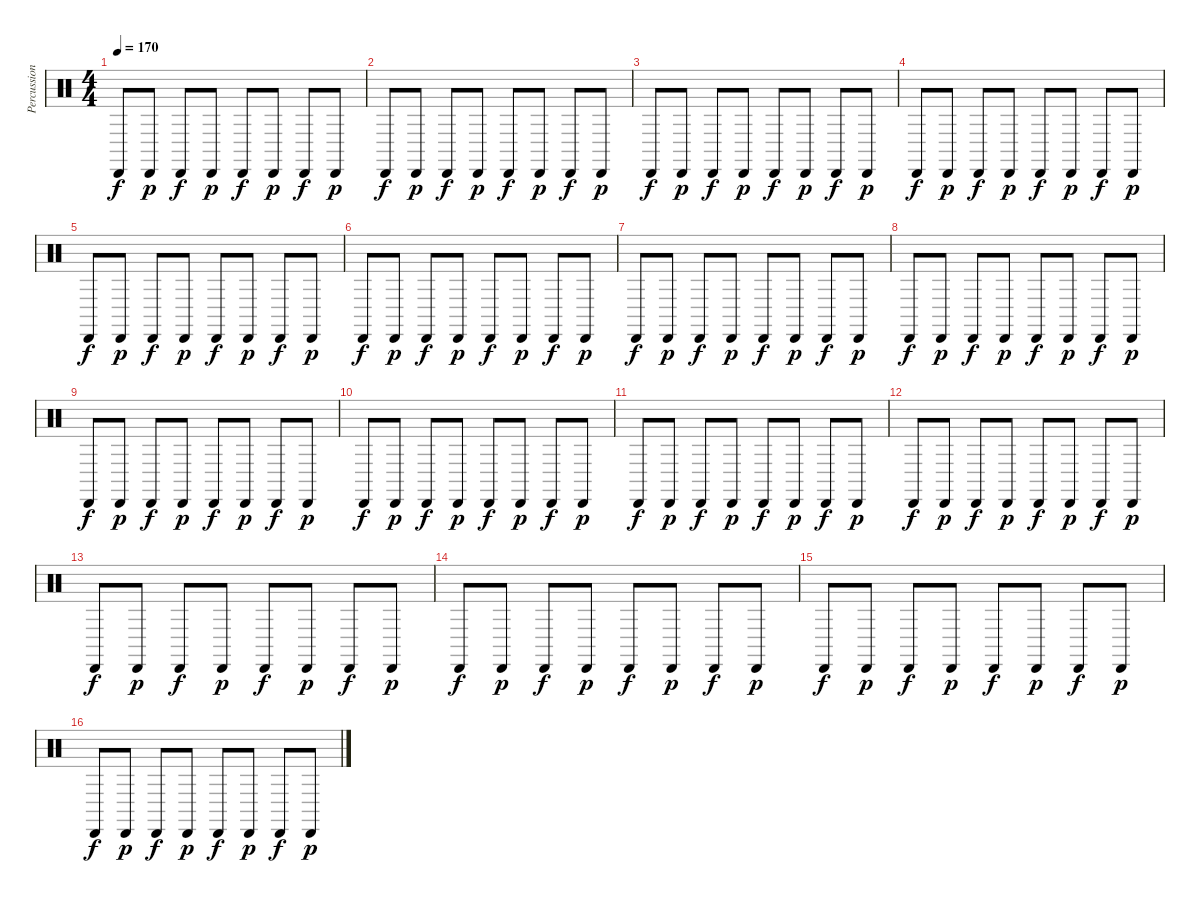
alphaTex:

\track ("Percussion" "Percussion") {instrument percussion}
\staff {score}
\articulation defaults
\ts (4 4)
\tempo 170
\clef neutral
\ks c "Cabasa (hit)".8{dy f} "Cabasa (hit)".8{dy p} "Cabasa (hit)".8{dy f} "Cabasa (hit)".8{dy p} "Cabasa (hit)".8{dy f} "Cabasa (hit)".8{dy p} "Cabasa (hit)".8{dy f} "Cabasa (hit)".8{dy p}
|
"Cabasa (hit)".8{dy f} "Cabasa (hit)".8{dy p} "Cabasa (hit)".8{dy f} "Cabasa (hit)".8{dy p} "Cabasa (hit)".8{dy f} "Cabasa (hit)".8{dy p} "Cabasa (hit)".8{dy f} "Cabasa (hit)".8{dy p} |
"Cabasa (hit)".8{dy f} "Cabasa (hit)".8{dy p} "Cabasa (hit)".8{dy f} "Cabasa (hit)".8{dy p} "Cabasa (hit)".8{dy f} "Cabasa (hit)".8{dy p} "Cabasa (hit)".8{dy f} "Cabasa (hit)".8{dy p} |
"Cabasa (hit)".8{dy f} "Cabasa (hit)".8{dy p} "Cabasa (hit)".8{dy f} "Cabasa (hit)".8{dy p} "Cabasa (hit)".8{dy f} "Cabasa (hit)".8{dy p} "Cabasa (hit)".8{dy f} "Cabasa (hit)".8{dy p} |
"Cabasa (hit)".8{dy f} "Cabasa (hit)".8{dy p} "Cabasa (hit)".8{dy f} "Cabasa (hit)".8{dy p} "Cabasa (hit)".8{dy f} "Cabasa (hit)".8{dy p} "Cabasa (hit)".8{dy f} "Cabasa (hit)".8{dy p} |
"Cabasa (hit)".8{dy f} "Cabasa (hit)".8{dy p} "Cabasa (hit)".8{dy f} "Cabasa (hit)".8{dy p} "Cabasa (hit)".8{dy f} "Cabasa (hit)".8{dy p} "Cabasa (hit)".8{dy f} "Cabasa (hit)".8{dy p} |
"Cabasa (hit)".8{dy f} "Cabasa (hit)".8{dy p} "Cabasa (hit)".8{dy f} "Cabasa (hit)".8{dy p} "Cabasa (hit)".8{dy f} "Cabasa (hit)".8{dy p} "Cabasa (hit)".8{dy f} "Cabasa (hit)".8{dy p} |
"Cabasa (hit)".8{dy f} "Cabasa (hit)".8{dy p} "Cabasa (hit)".8{dy f} "Cabasa (hit)".8{dy p} "Cabasa (hit)".8{dy f} "Cabasa (hit)".8{dy p} "Cabasa (hit)".8{dy f} "Cabasa (hit)".8{dy p} |
"Cabasa (hit)".8{dy f} "Cabasa (hit)".8{dy p} "Cabasa (hit)".8{dy f} "Cabasa (hit)".8{dy p} "Cabasa (hit)".8{dy f} "Cabasa (hit)".8{dy p} "Cabasa (hit)".8{dy f} "Cabasa (hit)".8{dy p} |
"Cabasa (hit)".8{dy f} "Cabasa (hit)".8{dy p} "Cabasa (hit)".8{dy f} "Cabasa (hit)".8{dy p} "Cabasa (hit)".8{dy f} "Cabasa (hit)".8{dy p} "Cabasa (hit)".8{dy f} "Cabasa (hit)".8{dy p} |
"Cabasa (hit)".8{dy f} "Cabasa (hit)".8{dy p} "Cabasa (hit)".8{dy f} "Cabasa (hit)".8{dy p} "Cabasa (hit)".8{dy f} "Cabasa (hit)".8{dy p} "Cabasa (hit)".8{dy f} "Cabasa (hit)".8{dy p} |
"Cabasa (hit)".8{dy f} "Cabasa (hit)".8{dy p} "Cabasa (hit)".8{dy f} "Cabasa (hit)".8{dy p} "Cabasa (hit)".8{dy f} "Cabasa (hit)".8{dy p} "Cabasa (hit)".8{dy f} "Cabasa (hit)".8{dy p} |
"Cabasa (hit)".8{dy f} "Cabasa (hit)".8{dy p} "Cabasa (hit)".8{dy f} "Cabasa (hit)".8{dy p} "Cabasa (hit)".8{dy f} "Cabasa (hit)".8{dy p} "Cabasa (hit)".8{dy f} "Cabasa (hit)".8{dy p} |
"Cabasa (hit)".8{dy f} "Cabasa (hit)".8{dy p} "Cabasa (hit)".8{dy f} "Cabasa (hit)".8{dy p} "Cabasa (hit)".8{dy f} "Cabasa (hit)".8{dy p} "Cabasa (hit)".8{dy f} "Cabasa (hit)".8{dy p} |
"Cabasa (hit)".8{dy f} "Cabasa (hit)".8{dy p} "Cabasa (hit)".8{dy f} "Cabasa (hit)".8{dy p} "Cabasa (hit)".8{dy f} "Cabasa (hit)".8{dy p} "Cabasa (hit)".8{dy f} "Cabasa (hit)".8{dy p} |
"Cabasa (hit)".8{dy f} "Cabasa (hit)".8{dy p} "Cabasa (hit)".8{dy f} "Cabasa (hit)".8{dy p} "Cabasa (hit)".8{dy f} "Cabasa (hit)".8{dy p} "Cabasa (hit)".8{dy f} "Cabasa (hit)".8{dy p}
